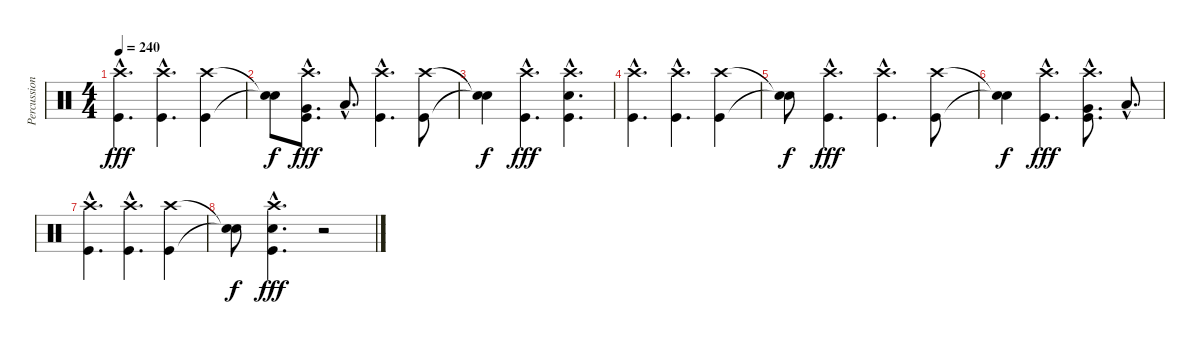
\track ("Percussion" "Percussion") {instrument percussion}
\staff {score}
\articulation defaults
\ts (4 4)
\tempo 240
\clef neutral
\ks c
("Crash high (hit)"{hac} "Kick (hit)"{hac}).4{d dy fff} ("Crash high (hit)"{hac} "Kick (hit)"{hac}).4{d} ("Crash high (hit)" "Kick (hit)").4 |
("Snare (hit)"{t} "Snare (hit)"{t}).8{dy f} ("Crash high (hit)"{hac} "Very Low Tom (hit)"{hac} "Kick (hit)"{hac}).8{d dy fff} "Low Floor Tom (hit)"{hac}.8{d} ("Crash high (hit)"{hac} "Kick (hit)"{hac}).4{d} ("Crash high (hit)" "Kick (hit)").8 |
("Snare (hit)"{t} "Snare (hit)"{t}).4{dy f} ("Crash high (hit)"{hac} "Kick (hit)"{hac}).4{d dy fff} ("Crash high (hit)"{hac} "Snare (hit) 2"{hac} "Kick (hit)"{hac}).4{d} |
("Crash high (hit)"{hac} "Kick (hit)"{hac}).4{d} ("Crash high (hit)"{hac} "Kick (hit)"{hac}).4{d} ("Crash high (hit)" "Kick (hit)").4 |
("Snare (hit)"{t} "Snare (hit)"{t}).8{dy f} ("Crash high (hit)"{hac} "Kick (hit)"{hac}).4{d dy fff} ("Crash high (hit)"{hac} "Kick (hit)"{hac}).4{d} ("Crash high (hit)" "Kick (hit)").8 |
("Snare (hit)"{t} "Snare (hit)"{t}).4{dy f} ("Crash high (hit)"{hac} "Kick (hit)"{hac}).4{d dy fff} ("Crash high (hit)"{hac} "Very Low Tom (hit)"{hac} "Kick (hit)"{hac}).8{d} "Low Floor Tom (hit)"{hac}.8{d} |
("Crash high (hit)"{hac} "Kick (hit)"{hac}).4{d} ("Crash high (hit)"{hac} "Kick (hit)"{hac}).4{d} ("Crash high (hit)" "Kick (hit)").4 |
("Snare (hit)"{t} "Snare (hit)"{t}).8{dy f} ("Crash high (hit)"{hac} "Snare (hit) 2"{hac} "Kick (hit)"{hac}).4{d dy fff} r.2
